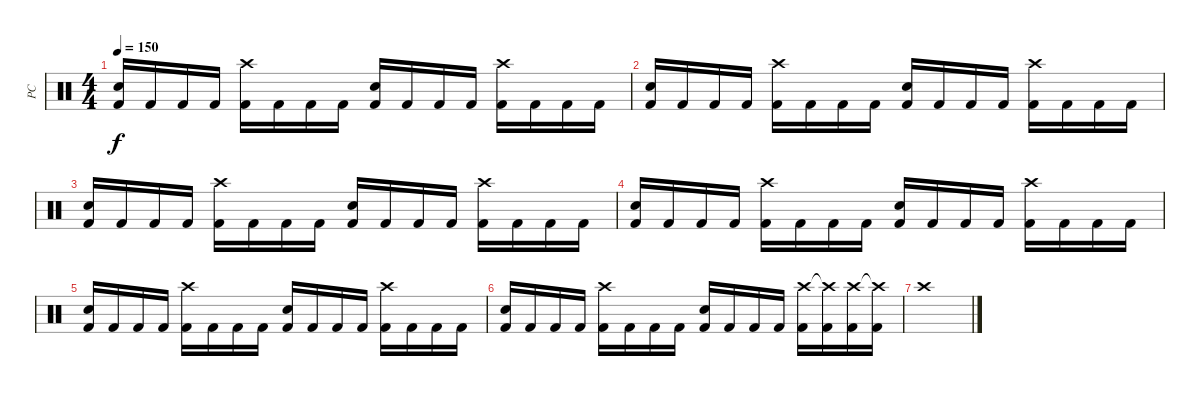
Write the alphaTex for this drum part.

\track ("PC" "PC") {instrument percussion}
\staff {score}
\articulation defaults
\ts (4 4)
\tempo 150
\clef neutral
\ks c
("Kick (hit) 2" "Snare (hit) 2").16{dy f} "Kick (hit) 2".16 "Kick (hit) 2".16 "Kick (hit) 2".16 ("Kick (hit) 2" "Crash high (hit)").16 "Kick (hit) 2".16 "Kick (hit) 2".16 "Kick (hit) 2".16 ("Kick (hit) 2" "Snare (hit) 2").16 "Kick (hit) 2".16 "Kick (hit) 2".16 "Kick (hit) 2".16 ("Kick (hit) 2" "Crash high (hit)").16 "Kick (hit) 2".16 "Kick (hit) 2".16 "Kick (hit) 2".16 |
("Kick (hit) 2" "Snare (hit) 2").16 "Kick (hit) 2".16 "Kick (hit) 2".16 "Kick (hit) 2".16 ("Kick (hit) 2" "Crash high (hit)").16 "Kick (hit) 2".16 "Kick (hit) 2".16 "Kick (hit) 2".16 ("Kick (hit) 2" "Snare (hit) 2").16 "Kick (hit) 2".16 "Kick (hit) 2".16 "Kick (hit) 2".16 ("Kick (hit) 2" "Crash high (hit)").16 "Kick (hit) 2".16 "Kick (hit) 2".16 "Kick (hit) 2".16 |
("Kick (hit) 2" "Snare (hit) 2").16 "Kick (hit) 2".16 "Kick (hit) 2".16 "Kick (hit) 2".16 ("Kick (hit) 2" "Crash high (hit)").16 "Kick (hit) 2".16 "Kick (hit) 2".16 "Kick (hit) 2".16 ("Kick (hit) 2" "Snare (hit) 2").16 "Kick (hit) 2".16 "Kick (hit) 2".16 "Kick (hit) 2".16 ("Kick (hit) 2" "Crash high (hit)").16 "Kick (hit) 2".16 "Kick (hit) 2".16 "Kick (hit) 2".16 |
("Kick (hit) 2" "Snare (hit) 2").16 "Kick (hit) 2".16 "Kick (hit) 2".16 "Kick (hit) 2".16 ("Kick (hit) 2" "Crash high (hit)").16 "Kick (hit) 2".16 "Kick (hit) 2".16 "Kick (hit) 2".16 ("Kick (hit) 2" "Snare (hit) 2").16 "Kick (hit) 2".16 "Kick (hit) 2".16 "Kick (hit) 2".16 ("Kick (hit) 2" "Crash high (hit)").16 "Kick (hit) 2".16 "Kick (hit) 2".16 "Kick (hit) 2".16 |
("Kick (hit) 2" "Snare (hit) 2").16 "Kick (hit) 2".16 "Kick (hit) 2".16 "Kick (hit) 2".16 ("Kick (hit) 2" "Crash high (hit)").16 "Kick (hit) 2".16 "Kick (hit) 2".16 "Kick (hit) 2".16 ("Kick (hit) 2" "Snare (hit) 2").16 "Kick (hit) 2".16 "Kick (hit) 2".16 "Kick (hit) 2".16 ("Kick (hit) 2" "Crash high (hit)").16 "Kick (hit) 2".16 "Kick (hit) 2".16 "Kick (hit) 2".16 |
("Kick (hit) 2" "Snare (hit) 2").16 "Kick (hit) 2".16 "Kick (hit) 2".16 "Kick (hit) 2".16 ("Kick (hit) 2" "Crash high (hit)").16 "Kick (hit) 2".16 "Kick (hit) 2".16 "Kick (hit) 2".16 ("Kick (hit) 2" "Snare (hit) 2").16 "Kick (hit) 2".16 "Kick (hit) 2".16 "Kick (hit) 2".16 ("Kick (hit) 2" "Crash high (hit)").16 ("Kick (hit) 2" "Crash high (hit)"{t}).16 ("Kick (hit) 2" "Crash high (hit)").16 ("Kick (hit) 2" "Crash high (hit)"{t}).16 |
"Crash high (hit)".1
